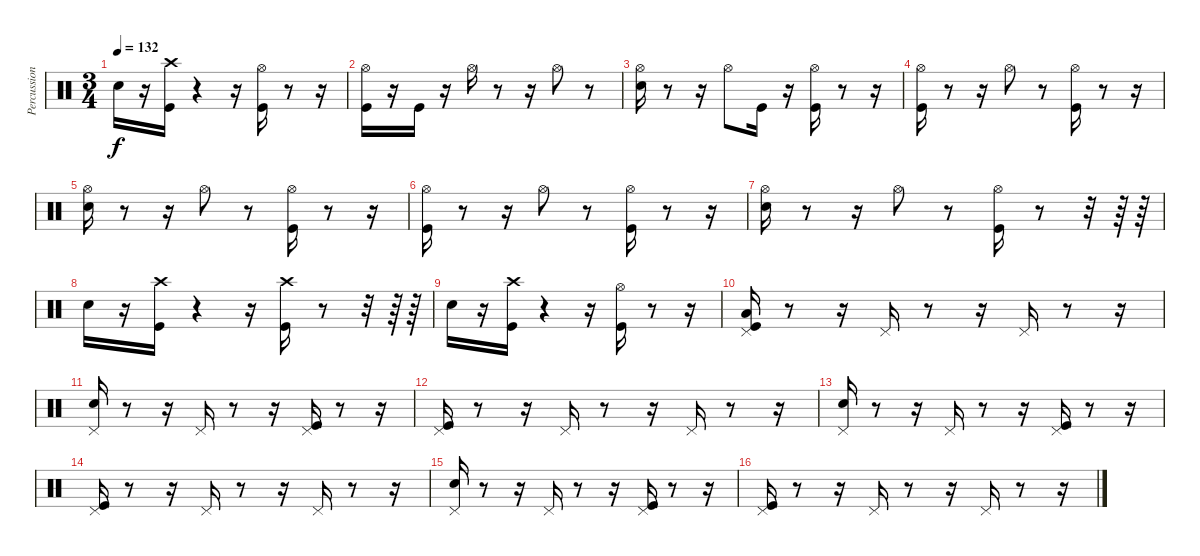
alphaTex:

\track ("Percussion" "Percussion") {instrument percussion}
\staff {score}
\articulation defaults
\ts (3 4)
\tempo 132
\clef neutral
\ks c "Snare (hit) 2".16{dy f}
r.16 ("Kick (hit)" "Crash high (hit)").16 r.4 r.16 ("Hi-Hat (open)" "Kick (hit)").16 r.8 r.16 |
("Hi-Hat (open)" "Kick (hit)").16 r.16 "Kick (hit)".16 r.16 "Hi-Hat (open)".16 r.8 r.16 "Hi-Hat (open)".8 r.8 |
("Snare (hit) 2" "Hi-Hat (open)").16 r.8 r.16 "Hi-Hat (open)".8 "Kick (hit)".16 r.16 ("Hi-Hat (open)" "Kick (hit)").16 r.8 r.16 |
("Kick (hit)" "Hi-Hat (open)").16 r.8 r.16 "Hi-Hat (open)".8 r.8 ("Hi-Hat (open)" "Kick (hit)").16 r.8 r.16 |
("Hi-Hat (open)" "Snare (hit) 2").16 r.8 r.16 "Hi-Hat (open)".8 r.8 ("Hi-Hat (open)" "Kick (hit)").16 r.8 r.16 |
("Hi-Hat (open)" "Kick (hit)").16 r.8 r.16 "Hi-Hat (open)".8 r.8 ("Kick (hit)" "Hi-Hat (open)").16 r.8 r.16 |
("Hi-Hat (open)" "Snare (hit) 2").16 r.8 r.16 "Hi-Hat (open)".8 r.8 ("Hi-Hat (open)" "Kick (hit)").16 r.8 r.32 r.64 r.64 |
"Snare (hit) 2".16 r.16 ("Kick (hit)" "Crash high (hit)").16 r.4 r.16 ("Kick (hit)" "Crash high (hit)").16 r.8 r.32 r.64 r.64 |
"Snare (hit) 2".16 r.16 ("Kick (hit)" "Crash high (hit)").16 r.4 r.16 ("Kick (hit)" "Hi-Hat (open)").16 r.8 r.16 |
("Pedal Hi-Hat (hit)" "Low Floor Tom (hit)" "Kick (hit)").16 r.8 r.16 "Pedal Hi-Hat (hit)".16 r.8 r.16 "Pedal Hi-Hat (hit)".16 r.8 r.16 |
("Pedal Hi-Hat (hit)" "Snare (hit) 2").16 r.8 r.16 "Pedal Hi-Hat (hit)".16 r.8 r.16 ("Pedal Hi-Hat (hit)" "Kick (hit)").16 r.8 r.16 |
("Pedal Hi-Hat (hit)" "Kick (hit)").16 r.8 r.16 "Pedal Hi-Hat (hit)".16 r.8 r.16 "Pedal Hi-Hat (hit)".16 r.8 r.16 |
("Pedal Hi-Hat (hit)" "Snare (hit) 2").16 r.8 r.16 "Pedal Hi-Hat (hit)".16 r.8 r.16 ("Pedal Hi-Hat (hit)" "Kick (hit)").16 r.8 r.16 |
("Pedal Hi-Hat (hit)" "Kick (hit)").16 r.8 r.16 "Pedal Hi-Hat (hit)".16 r.8 r.16 "Pedal Hi-Hat (hit)".16 r.8 r.16 |
("Pedal Hi-Hat (hit)" "Snare (hit) 2").16 r.8 r.16 "Pedal Hi-Hat (hit)".16 r.8 r.16 ("Pedal Hi-Hat (hit)" "Kick (hit)").16 r.8 r.16 |
("Pedal Hi-Hat (hit)" "Kick (hit)").16 r.8 r.16 "Pedal Hi-Hat (hit)".16 r.8 r.16 "Pedal Hi-Hat (hit)".16 r.8 r.16
